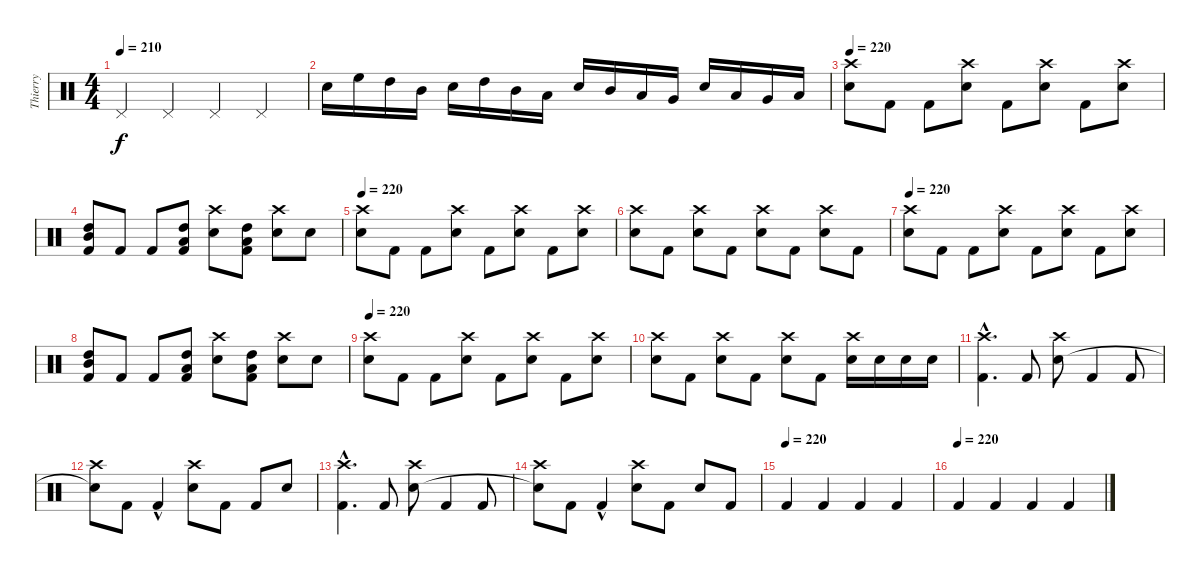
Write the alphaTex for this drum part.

\track ("Thierry" "Thierry") {instrument percussion}
\staff {score}
\articulation defaults
\ts (4 4)
\tempo 210
\clef neutral
\ks c "Pedal Hi-Hat (hit)".4{dy f} "Pedal Hi-Hat (hit)".4 "Pedal Hi-Hat (hit)".4 "Pedal Hi-Hat (hit)".4
|
"Electric Snare (hit)".16 "High Floor Tom (hit)".16 "High Tom (hit)".16 "Mid Tom (hit)".16 "Electric Snare (hit)".16 "High Tom (hit)".16 "Mid Tom (hit)".16 "Low Tom (hit)".16 "Electric Snare (hit)".16 "Mid Tom (hit)".16 "Low Tom (hit)".16 "Very Low Tom (hit)".16 "Electric Snare (hit)".16 "Low Tom (hit)".16 "Very Low Tom (hit)".16 "Low Floor Tom (hit)".16 |
\tempo 220
("Crash high (hit)" "Electric Snare (hit)").8 "Kick (hit) 2".8 "Kick (hit) 2".8 ("Crash high (hit)" "Electric Snare (hit)").8 "Kick (hit) 2".8 ("Crash high (hit)" "Electric Snare (hit)").8 "Kick (hit) 2".8 ("Crash high (hit)" "Electric Snare (hit)").8 |
("Mid Tom (hit)" "High Tom (hit)" "Kick (hit) 2").8 "Kick (hit) 2".8 "Kick (hit) 2".8 ("Low Tom (hit)" "High Tom (hit)" "Kick (hit) 2").8 ("Crash high (hit)" "Electric Snare (hit)").8 ("Low Tom (hit)" "High Tom (hit)" "Kick (hit) 2").8 ("Crash high (hit)" "Electric Snare (hit)").8 "Electric Snare (hit)".8 |
\tempo 220
("Crash high (hit)" "Electric Snare (hit)").8 "Kick (hit) 2".8 "Kick (hit) 2".8 ("Crash high (hit)" "Electric Snare (hit)").8 "Kick (hit) 2".8 ("Crash high (hit)" "Electric Snare (hit)").8 "Kick (hit) 2".8 ("Crash high (hit)" "Electric Snare (hit)").8 |
("Crash high (hit)" "Electric Snare (hit)").8 "Kick (hit) 2".8 ("Crash high (hit)" "Electric Snare (hit)").8 "Kick (hit) 2".8 ("Crash high (hit)" "Electric Snare (hit)").8 "Kick (hit) 2".8 ("Crash high (hit)" "Electric Snare (hit)").8 "Kick (hit) 2".8 |
\tempo 220
("Crash high (hit)" "Electric Snare (hit)").8 "Kick (hit) 2".8 "Kick (hit) 2".8 ("Crash high (hit)" "Electric Snare (hit)").8 "Kick (hit) 2".8 ("Crash high (hit)" "Electric Snare (hit)").8 "Kick (hit) 2".8 ("Crash high (hit)" "Electric Snare (hit)").8 |
("Mid Tom (hit)" "High Tom (hit)" "Kick (hit) 2").8 "Kick (hit) 2".8 "Kick (hit) 2".8 ("Low Tom (hit)" "High Tom (hit)" "Kick (hit) 2").8 ("Crash high (hit)" "Electric Snare (hit)").8 ("Low Tom (hit)" "High Tom (hit)" "Kick (hit) 2").8 ("Crash high (hit)" "Electric Snare (hit)").8 "Electric Snare (hit)".8 |
\tempo 220
("Crash high (hit)" "Electric Snare (hit)").8 "Kick (hit) 2".8 "Kick (hit) 2".8 ("Crash high (hit)" "Electric Snare (hit)").8 "Kick (hit) 2".8 ("Crash high (hit)" "Electric Snare (hit)").8 "Kick (hit) 2".8 ("Crash high (hit)" "Electric Snare (hit)").8 |
("Crash high (hit)" "Electric Snare (hit)").8 "Kick (hit) 2".8 ("Crash high (hit)" "Electric Snare (hit)").8 "Kick (hit) 2".8 ("Crash high (hit)" "Electric Snare (hit)").8 "Kick (hit) 2".8 ("Crash high (hit)" "Electric Snare (hit)").16 "Electric Snare (hit)".16 "Electric Snare (hit)".16 "Electric Snare (hit)".16 |
("Crash high (hit)"{hac} "Kick (hit) 2"{hac}).4{d} "Kick (hit) 2".8 ("Crash high (hit)" "Electric Snare (hit)").8 "Kick (hit) 2".4 "Kick (hit) 2".8 |
("Crash high (hit)" "Snare (hit)"{t}).8 "Kick (hit) 2".8 "Kick (hit) 2"{hac}.4 ("Crash high (hit)" "Electric Snare (hit)").8 "Kick (hit) 2".8 "Kick (hit) 2".8 "Electric Snare (hit)".8 |
("Crash high (hit)"{hac} "Kick (hit) 2"{hac}).4{d} "Kick (hit) 2".8 ("Crash high (hit)" "Electric Snare (hit)").8 "Kick (hit) 2".4 "Kick (hit) 2".8 |
("Crash high (hit)" "Snare (hit)"{t}).8 "Kick (hit) 2".8 "Kick (hit) 2"{hac}.4 ("Crash high (hit)" "Electric Snare (hit)").8 "Kick (hit) 2".8 "Electric Snare (hit)".8 "Kick (hit) 2".8 |
\tempo (220)
"Kick (hit) 2".4 "Kick (hit) 2".4 "Kick (hit) 2".4 "Kick (hit) 2".4 |
\tempo (220)
"Kick (hit) 2".4 "Kick (hit) 2".4 "Kick (hit) 2".4 "Kick (hit) 2".4
